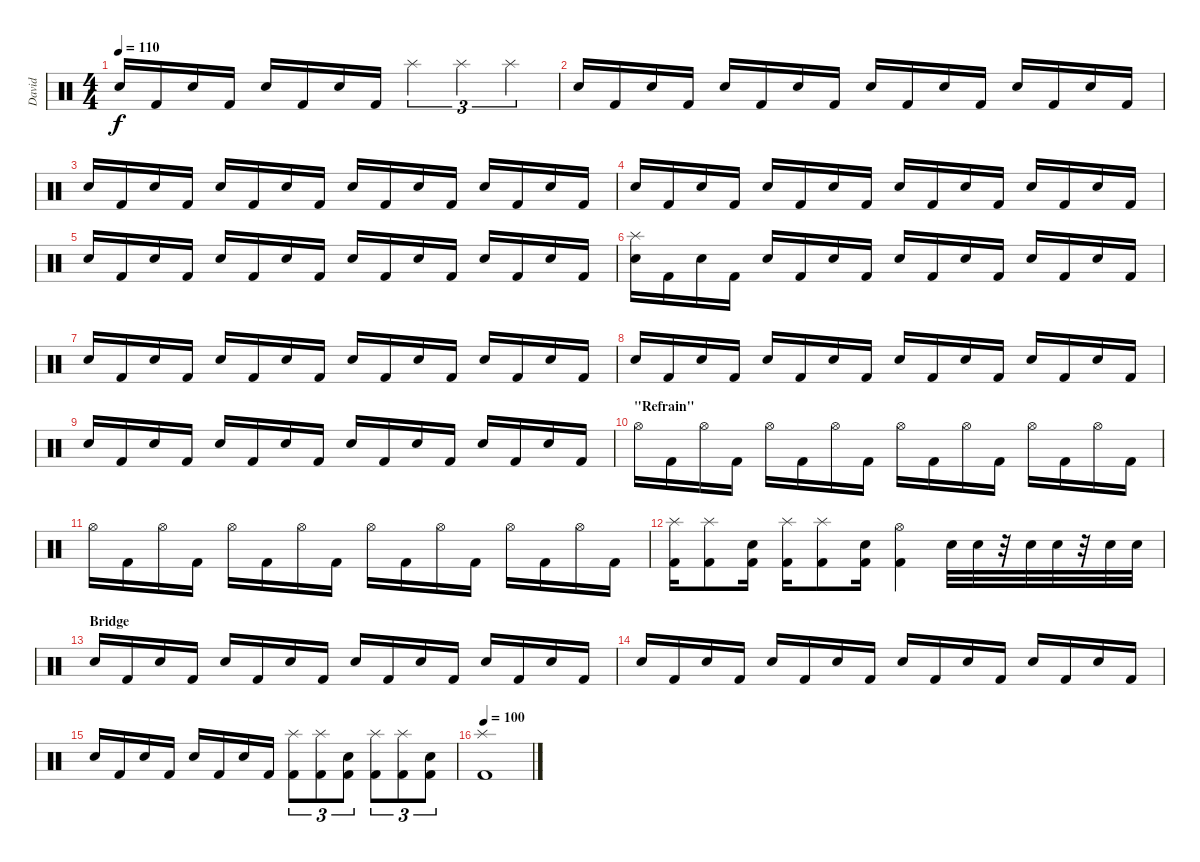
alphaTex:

\track ("David" "David") {instrument percussion}
\staff {score}
\articulation defaults
\ts (4 4)
\tempo 110
\clef neutral
\ks c "Electric Snare (hit)".16{dy f} "Kick (hit) 2".16 "Electric Snare (hit)".16 "Kick (hit) 2".16 "Electric Snare (hit)".16 "Kick (hit) 2".16 "Electric Snare (hit)".16 "Kick (hit) 2".16 "Splash (hit)".4{tu (3 2)} "Splash (hit)".4{tu (3 2)} "Splash (hit)".4{tu (3 2)}
|
"Electric Snare (hit)".16 "Kick (hit) 2".16 "Electric Snare (hit)".16 "Kick (hit) 2".16 "Electric Snare (hit)".16 "Kick (hit) 2".16 "Electric Snare (hit)".16 "Kick (hit) 2".16 "Electric Snare (hit)".16 "Kick (hit) 2".16 "Electric Snare (hit)".16 "Kick (hit) 2".16 "Electric Snare (hit)".16 "Kick (hit) 2".16 "Electric Snare (hit)".16 "Kick (hit) 2".16 |
"Electric Snare (hit)".16 "Kick (hit) 2".16 "Electric Snare (hit)".16 "Kick (hit) 2".16 "Electric Snare (hit)".16 "Kick (hit) 2".16 "Electric Snare (hit)".16 "Kick (hit) 2".16 "Electric Snare (hit)".16 "Kick (hit) 2".16 "Electric Snare (hit)".16 "Kick (hit) 2".16 "Electric Snare (hit)".16 "Kick (hit) 2".16 "Electric Snare (hit)".16 "Kick (hit) 2".16 |
"Electric Snare (hit)".16 "Kick (hit) 2".16 "Electric Snare (hit)".16 "Kick (hit) 2".16 "Electric Snare (hit)".16 "Kick (hit) 2".16 "Electric Snare (hit)".16 "Kick (hit) 2".16 "Electric Snare (hit)".16 "Kick (hit) 2".16 "Electric Snare (hit)".16 "Kick (hit) 2".16 "Electric Snare (hit)".16 "Kick (hit) 2".16 "Electric Snare (hit)".16 "Kick (hit) 2".16 |
"Electric Snare (hit)".16 "Kick (hit) 2".16 "Electric Snare (hit)".16 "Kick (hit) 2".16 "Electric Snare (hit)".16 "Kick (hit) 2".16 "Electric Snare (hit)".16 "Kick (hit) 2".16 "Electric Snare (hit)".16 "Kick (hit) 2".16 "Electric Snare (hit)".16 "Kick (hit) 2".16 "Electric Snare (hit)".16 "Kick (hit) 2".16 "Electric Snare (hit)".16 "Kick (hit) 2".16 |
("Splash (hit)" "Electric Snare (hit)").16 "Kick (hit) 2".16 "Electric Snare (hit)".16 "Kick (hit) 2".16 "Electric Snare (hit)".16 "Kick (hit) 2".16 "Electric Snare (hit)".16 "Kick (hit) 2".16 "Electric Snare (hit)".16 "Kick (hit) 2".16 "Electric Snare (hit)".16 "Kick (hit) 2".16 "Electric Snare (hit)".16 "Kick (hit) 2".16 "Electric Snare (hit)".16 "Kick (hit) 2".16 |
"Electric Snare (hit)".16 "Kick (hit) 2".16 "Electric Snare (hit)".16 "Kick (hit) 2".16 "Electric Snare (hit)".16 "Kick (hit) 2".16 "Electric Snare (hit)".16 "Kick (hit) 2".16 "Electric Snare (hit)".16 "Kick (hit) 2".16 "Electric Snare (hit)".16 "Kick (hit) 2".16 "Electric Snare (hit)".16 "Kick (hit) 2".16 "Electric Snare (hit)".16 "Kick (hit) 2".16 |
"Electric Snare (hit)".16 "Kick (hit) 2".16 "Electric Snare (hit)".16 "Kick (hit) 2".16 "Electric Snare (hit)".16 "Kick (hit) 2".16 "Electric Snare (hit)".16 "Kick (hit) 2".16 "Electric Snare (hit)".16 "Kick (hit) 2".16 "Electric Snare (hit)".16 "Kick (hit) 2".16 "Electric Snare (hit)".16 "Kick (hit) 2".16 "Electric Snare (hit)".16 "Kick (hit) 2".16 |
"Electric Snare (hit)".16 "Kick (hit) 2".16 "Electric Snare (hit)".16 "Kick (hit) 2".16 "Electric Snare (hit)".16 "Kick (hit) 2".16 "Electric Snare (hit)".16 "Kick (hit) 2".16 "Electric Snare (hit)".16 "Kick (hit) 2".16 "Electric Snare (hit)".16 "Kick (hit) 2".16 "Electric Snare (hit)".16 "Kick (hit) 2".16 "Electric Snare (hit)".16 "Kick (hit) 2".16 |
\section ("" "\"Refrain\"")
"Hi-Hat (open)".16 "Kick (hit) 2".16 "Hi-Hat (open)".16 "Kick (hit) 2".16 "Hi-Hat (open)".16 "Kick (hit) 2".16 "Hi-Hat (open)".16 "Kick (hit) 2".16 "Hi-Hat (open)".16 "Kick (hit) 2".16 "Hi-Hat (open)".16 "Kick (hit) 2".16 "Hi-Hat (open)".16 "Kick (hit) 2".16 "Hi-Hat (open)".16 "Kick (hit) 2".16 |
"Hi-Hat (open)".16 "Kick (hit) 2".16 "Hi-Hat (open)".16 "Kick (hit) 2".16 "Hi-Hat (open)".16 "Kick (hit) 2".16 "Hi-Hat (open)".16 "Kick (hit) 2".16 "Hi-Hat (open)".16 "Kick (hit) 2".16 "Hi-Hat (open)".16 "Kick (hit) 2".16 "Hi-Hat (open)".16 "Kick (hit) 2".16 "Hi-Hat (open)".16 "Kick (hit) 2".16 |
("Splash (hit)" "Kick (hit) 2").16 ("Splash (hit)" "Kick (hit) 2").8 ("Electric Snare (hit)" "Kick (hit) 2").16 ("Splash (hit)" "Kick (hit) 2").16 ("Splash (hit)" "Kick (hit) 2").8 ("Electric Snare (hit)" "Kick (hit) 2").16 ("Hi-Hat (open)" "Kick (hit) 2").4 "Electric Snare (hit)".32 "Electric Snare (hit)".32 r.32 "Electric Snare (hit)".32 "Electric Snare (hit)".32 r.32 "Electric Snare (hit)".32 "Electric Snare (hit)".32 |
\section ("" "Bridge")
"Electric Snare (hit)".16 "Kick (hit) 2".16 "Electric Snare (hit)".16 "Kick (hit) 2".16 "Electric Snare (hit)".16 "Kick (hit) 2".16 "Electric Snare (hit)".16 "Kick (hit) 2".16 "Electric Snare (hit)".16 "Kick (hit) 2".16 "Electric Snare (hit)".16 "Kick (hit) 2".16 "Electric Snare (hit)".16 "Kick (hit) 2".16 "Electric Snare (hit)".16 "Kick (hit) 2".16 |
"Electric Snare (hit)".16 "Kick (hit) 2".16 "Electric Snare (hit)".16 "Kick (hit) 2".16 "Electric Snare (hit)".16 "Kick (hit) 2".16 "Electric Snare (hit)".16 "Kick (hit) 2".16 "Electric Snare (hit)".16 "Kick (hit) 2".16 "Electric Snare (hit)".16 "Kick (hit) 2".16 "Electric Snare (hit)".16 "Kick (hit) 2".16 "Electric Snare (hit)".16 "Kick (hit) 2".16 |
"Electric Snare (hit)".16 "Kick (hit) 2".16 "Electric Snare (hit)".16 "Kick (hit) 2".16 "Electric Snare (hit)".16 "Kick (hit) 2".16 "Electric Snare (hit)".16 "Kick (hit) 2".16 ("Splash (hit)" "Kick (hit) 2").8{tu (3 2)} ("Splash (hit)" "Kick (hit) 2").8{tu (3 2)} ("Electric Snare (hit)" "Kick (hit) 2").8{tu (3 2)} ("Splash (hit)" "Kick (hit) 2").8{tu (3 2)} ("Splash (hit)" "Kick (hit) 2").8{tu (3 2)} ("Electric Snare (hit)" "Kick (hit) 2").8{tu (3 2)} |
\tempo 100
("Splash (hit)" "Kick (hit) 2").1
